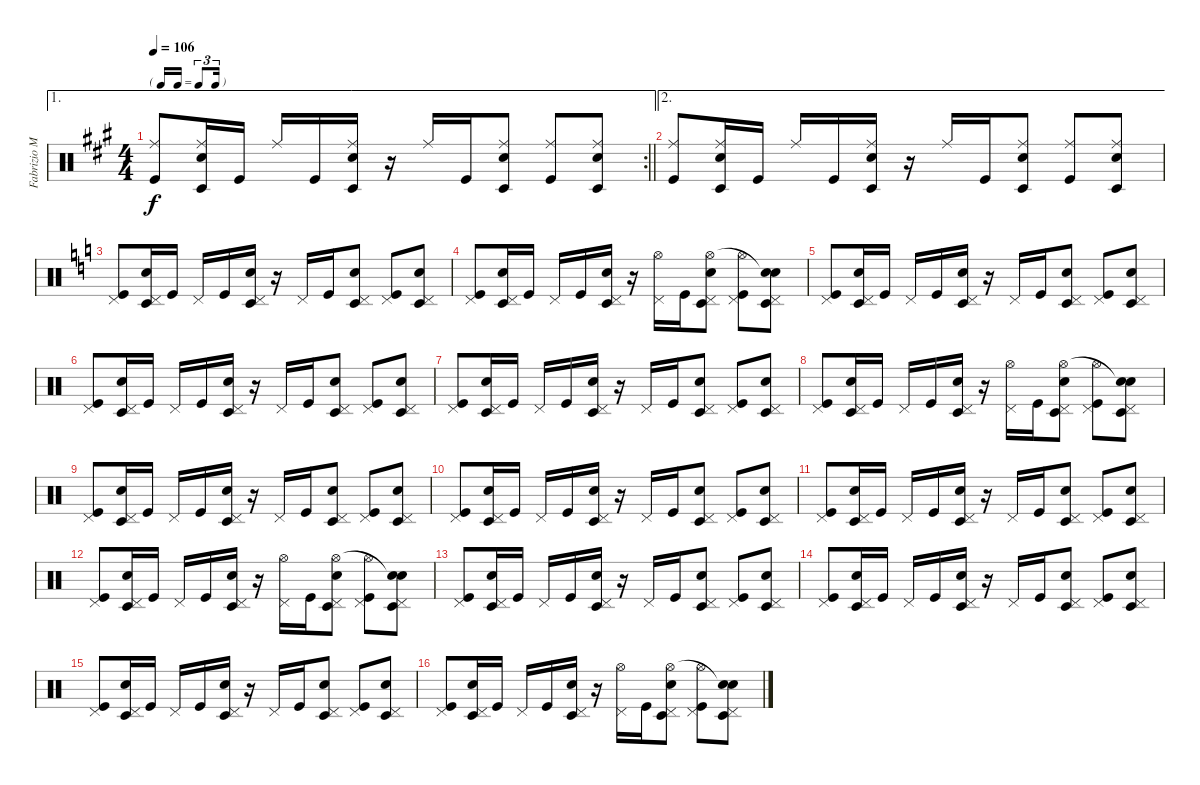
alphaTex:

\track ("Fabrizio Moretti" "Fabrizio M") {instrument percussion}
\staff {score}
\articulation defaults
\ae 1
\rc 2
\ts (4 4)
\tf triplet16th
\tempo 106
\clef neutral
\barLineRight lightlight
\ks a
("Ride (middle)" "Kick (hit)").8{dy f} ("Ride (middle)" "Electric Snare (hit)" "Timbale low (hit)").16 "Kick (hit)".16 "Ride (middle)".16 "Kick (hit)".16 ("Ride (middle)" "Timbale low (hit)" "Electric Snare (hit)").16 r.16 "Ride (middle)".16 "Kick (hit)".16 ("Ride (middle)" "Electric Snare (hit)" "Timbale low (hit)").8 ("Ride (middle)" "Kick (hit)").8 ("Ride (middle)" "Electric Snare (hit)" "Timbale low (hit)").8 |
\ae 2
("Ride (middle)" "Kick (hit)").8 ("Ride (middle)" "Electric Snare (hit)" "Timbale low (hit)").16 "Kick (hit)".16 "Ride (middle)".16 "Kick (hit)".16 ("Ride (middle)" "Timbale low (hit)" "Electric Snare (hit)").16 r.16 "Ride (middle)".16 "Kick (hit)".16 ("Ride (middle)" "Electric Snare (hit)" "Timbale low (hit)").8 ("Ride (middle)" "Kick (hit)").8 ("Ride (middle)" "Electric Snare (hit)" "Timbale low (hit)").8 |
\ks c
("Pedal Hi-Hat (hit)" "Kick (hit)").8 ("Pedal Hi-Hat (hit)" "Electric Snare (hit)" "Timbale low (hit)").16 "Kick (hit)".16 "Pedal Hi-Hat (hit)".16 "Kick (hit)".16 ("Pedal Hi-Hat (hit)" "Timbale low (hit)" "Electric Snare (hit)").16 r.16 "Pedal Hi-Hat (hit)".16 "Kick (hit)".16 ("Pedal Hi-Hat (hit)" "Electric Snare (hit)" "Timbale low (hit)").8 ("Pedal Hi-Hat (hit)" "Kick (hit)").8 ("Pedal Hi-Hat (hit)" "Electric Snare (hit)" "Timbale low (hit)").8 |
("Pedal Hi-Hat (hit)" "Kick (hit)").8 ("Pedal Hi-Hat (hit)" "Electric Snare (hit)" "Timbale low (hit)").16 "Kick (hit)".16 "Pedal Hi-Hat (hit)".16 "Kick (hit)".16 ("Pedal Hi-Hat (hit)" "Timbale low (hit)" "Electric Snare (hit)").16 r.16 ("Pedal Hi-Hat (hit)" "Hi-Hat (open)").16 "Kick (hit)".16 ("Pedal Hi-Hat (hit)" "Electric Snare (hit)" "Timbale low (hit)" "Hi-Hat (open)").8 ("Pedal Hi-Hat (hit)" "Hi-Hat (open)" "Kick (hit)").8 ("Pedal Hi-Hat (hit)" "Electric Snare (hit)" "Timbale low (hit)" "Snare (hit)"{t}).8 |
("Pedal Hi-Hat (hit)" "Kick (hit)").8 ("Pedal Hi-Hat (hit)" "Electric Snare (hit)" "Timbale low (hit)").16 "Kick (hit)".16 "Pedal Hi-Hat (hit)".16 "Kick (hit)".16 ("Pedal Hi-Hat (hit)" "Timbale low (hit)" "Electric Snare (hit)").16 r.16 "Pedal Hi-Hat (hit)".16 "Kick (hit)".16 ("Pedal Hi-Hat (hit)" "Electric Snare (hit)" "Timbale low (hit)").8 ("Pedal Hi-Hat (hit)" "Kick (hit)").8 ("Pedal Hi-Hat (hit)" "Electric Snare (hit)" "Timbale low (hit)").8 |
("Pedal Hi-Hat (hit)" "Kick (hit)").8 ("Pedal Hi-Hat (hit)" "Electric Snare (hit)" "Timbale low (hit)").16 "Kick (hit)".16 "Pedal Hi-Hat (hit)".16 "Kick (hit)".16 ("Pedal Hi-Hat (hit)" "Timbale low (hit)" "Electric Snare (hit)").16 r.16 "Pedal Hi-Hat (hit)".16 "Kick (hit)".16 ("Pedal Hi-Hat (hit)" "Electric Snare (hit)" "Timbale low (hit)").8 ("Pedal Hi-Hat (hit)" "Kick (hit)").8 ("Pedal Hi-Hat (hit)" "Electric Snare (hit)" "Timbale low (hit)").8 |
("Pedal Hi-Hat (hit)" "Kick (hit)").8 ("Pedal Hi-Hat (hit)" "Electric Snare (hit)" "Timbale low (hit)").16 "Kick (hit)".16 "Pedal Hi-Hat (hit)".16 "Kick (hit)".16 ("Pedal Hi-Hat (hit)" "Timbale low (hit)" "Electric Snare (hit)").16 r.16 "Pedal Hi-Hat (hit)".16 "Kick (hit)".16 ("Pedal Hi-Hat (hit)" "Electric Snare (hit)" "Timbale low (hit)").8 ("Pedal Hi-Hat (hit)" "Kick (hit)").8 ("Pedal Hi-Hat (hit)" "Electric Snare (hit)" "Timbale low (hit)").8 |
("Pedal Hi-Hat (hit)" "Kick (hit)").8 ("Pedal Hi-Hat (hit)" "Electric Snare (hit)" "Timbale low (hit)").16 "Kick (hit)".16 "Pedal Hi-Hat (hit)".16 "Kick (hit)".16 ("Pedal Hi-Hat (hit)" "Timbale low (hit)" "Electric Snare (hit)").16 r.16 ("Pedal Hi-Hat (hit)" "Hi-Hat (open)").16 "Kick (hit)".16 ("Pedal Hi-Hat (hit)" "Electric Snare (hit)" "Timbale low (hit)" "Hi-Hat (open)").8 ("Pedal Hi-Hat (hit)" "Hi-Hat (open)" "Kick (hit)").8 ("Pedal Hi-Hat (hit)" "Electric Snare (hit)" "Timbale low (hit)" "Snare (hit)"{t}).8 |
("Pedal Hi-Hat (hit)" "Kick (hit)").8 ("Pedal Hi-Hat (hit)" "Electric Snare (hit)" "Timbale low (hit)").16 "Kick (hit)".16 "Pedal Hi-Hat (hit)".16 "Kick (hit)".16 ("Pedal Hi-Hat (hit)" "Timbale low (hit)" "Electric Snare (hit)").16 r.16 "Pedal Hi-Hat (hit)".16 "Kick (hit)".16 ("Pedal Hi-Hat (hit)" "Electric Snare (hit)" "Timbale low (hit)").8 ("Pedal Hi-Hat (hit)" "Kick (hit)").8 ("Pedal Hi-Hat (hit)" "Electric Snare (hit)" "Timbale low (hit)").8 |
("Pedal Hi-Hat (hit)" "Kick (hit)").8 ("Pedal Hi-Hat (hit)" "Electric Snare (hit)" "Timbale low (hit)").16 "Kick (hit)".16 "Pedal Hi-Hat (hit)".16 "Kick (hit)".16 ("Pedal Hi-Hat (hit)" "Timbale low (hit)" "Electric Snare (hit)").16 r.16 "Pedal Hi-Hat (hit)".16 "Kick (hit)".16 ("Pedal Hi-Hat (hit)" "Electric Snare (hit)" "Timbale low (hit)").8 ("Pedal Hi-Hat (hit)" "Kick (hit)").8 ("Pedal Hi-Hat (hit)" "Electric Snare (hit)" "Timbale low (hit)").8 |
("Pedal Hi-Hat (hit)" "Kick (hit)").8 ("Pedal Hi-Hat (hit)" "Electric Snare (hit)" "Timbale low (hit)").16 "Kick (hit)".16 "Pedal Hi-Hat (hit)".16 "Kick (hit)".16 ("Pedal Hi-Hat (hit)" "Timbale low (hit)" "Electric Snare (hit)").16 r.16 "Pedal Hi-Hat (hit)".16 "Kick (hit)".16 ("Pedal Hi-Hat (hit)" "Electric Snare (hit)" "Timbale low (hit)").8 ("Pedal Hi-Hat (hit)" "Kick (hit)").8 ("Pedal Hi-Hat (hit)" "Electric Snare (hit)" "Timbale low (hit)").8 |
("Pedal Hi-Hat (hit)" "Kick (hit)").8 ("Pedal Hi-Hat (hit)" "Electric Snare (hit)" "Timbale low (hit)").16 "Kick (hit)".16 "Pedal Hi-Hat (hit)".16 "Kick (hit)".16 ("Pedal Hi-Hat (hit)" "Timbale low (hit)" "Electric Snare (hit)").16 r.16 ("Pedal Hi-Hat (hit)" "Hi-Hat (open)").16 "Kick (hit)".16 ("Pedal Hi-Hat (hit)" "Electric Snare (hit)" "Timbale low (hit)" "Hi-Hat (open)").8 ("Pedal Hi-Hat (hit)" "Hi-Hat (open)" "Kick (hit)").8 ("Pedal Hi-Hat (hit)" "Electric Snare (hit)" "Timbale low (hit)" "Snare (hit)"{t}).8 |
("Pedal Hi-Hat (hit)" "Kick (hit)").8 ("Pedal Hi-Hat (hit)" "Electric Snare (hit)" "Timbale low (hit)").16 "Kick (hit)".16 "Pedal Hi-Hat (hit)".16 "Kick (hit)".16 ("Pedal Hi-Hat (hit)" "Timbale low (hit)" "Electric Snare (hit)").16 r.16 "Pedal Hi-Hat (hit)".16 "Kick (hit)".16 ("Pedal Hi-Hat (hit)" "Electric Snare (hit)" "Timbale low (hit)").8 ("Pedal Hi-Hat (hit)" "Kick (hit)").8 ("Pedal Hi-Hat (hit)" "Electric Snare (hit)" "Timbale low (hit)").8 |
("Pedal Hi-Hat (hit)" "Kick (hit)").8 ("Pedal Hi-Hat (hit)" "Electric Snare (hit)" "Timbale low (hit)").16 "Kick (hit)".16 "Pedal Hi-Hat (hit)".16 "Kick (hit)".16 ("Pedal Hi-Hat (hit)" "Timbale low (hit)" "Electric Snare (hit)").16 r.16 "Pedal Hi-Hat (hit)".16 "Kick (hit)".16 ("Pedal Hi-Hat (hit)" "Electric Snare (hit)" "Timbale low (hit)").8 ("Pedal Hi-Hat (hit)" "Kick (hit)").8 ("Pedal Hi-Hat (hit)" "Electric Snare (hit)" "Timbale low (hit)").8 |
("Pedal Hi-Hat (hit)" "Kick (hit)").8 ("Pedal Hi-Hat (hit)" "Electric Snare (hit)" "Timbale low (hit)").16 "Kick (hit)".16 "Pedal Hi-Hat (hit)".16 "Kick (hit)".16 ("Pedal Hi-Hat (hit)" "Timbale low (hit)" "Electric Snare (hit)").16 r.16 "Pedal Hi-Hat (hit)".16 "Kick (hit)".16 ("Pedal Hi-Hat (hit)" "Electric Snare (hit)" "Timbale low (hit)").8 ("Pedal Hi-Hat (hit)" "Kick (hit)").8 ("Pedal Hi-Hat (hit)" "Electric Snare (hit)" "Timbale low (hit)").8 |
("Pedal Hi-Hat (hit)" "Kick (hit)").8 ("Pedal Hi-Hat (hit)" "Electric Snare (hit)" "Timbale low (hit)").16 "Kick (hit)".16 "Pedal Hi-Hat (hit)".16 "Kick (hit)".16 ("Pedal Hi-Hat (hit)" "Timbale low (hit)" "Electric Snare (hit)").16 r.16 ("Pedal Hi-Hat (hit)" "Hi-Hat (open)").16 "Kick (hit)".16 ("Pedal Hi-Hat (hit)" "Electric Snare (hit)" "Timbale low (hit)" "Hi-Hat (open)").8 ("Pedal Hi-Hat (hit)" "Hi-Hat (open)" "Kick (hit)").8 ("Pedal Hi-Hat (hit)" "Electric Snare (hit)" "Timbale low (hit)" "Snare (hit)"{t}).8
